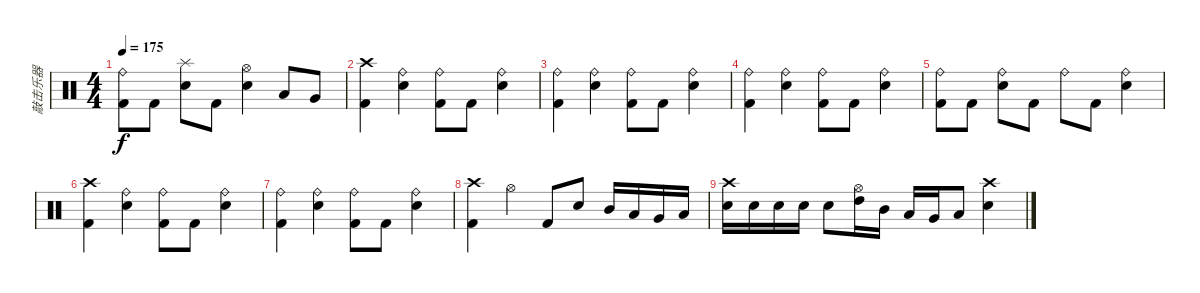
\track ("敲击乐器" "敲击乐器") {instrument percussion}
\staff {score}
\articulation defaults
\ts (4 4)
\tempo 175
\clef neutral
\ks c
("Ride (bell)" "Kick (hit) 2").8{dy f} "Kick (hit) 2".8 ("Splash (hit)" "Snare (hit) 2").8 "Kick (hit) 2".8 ("Hi-Hat (open)" "Snare (hit) 2").4 "Low Tom (hit)".8 "Very Low Tom (hit)".8 |
("Crash high (hit)" "Kick (hit) 2").4 ("Ride (bell)" "Snare (hit) 2").4 ("Ride (bell)" "Kick (hit) 2").8 "Kick (hit) 2".8 ("Ride (bell)" "Snare (hit) 2").4 |
("Ride (bell)" "Kick (hit) 2").4 ("Ride (bell)" "Snare (hit) 2").4 ("Ride (bell)" "Kick (hit) 2").8 "Kick (hit) 2".8 ("Ride (bell)" "Snare (hit) 2").4 |
("Ride (bell)" "Kick (hit) 2").4 ("Ride (bell)" "Snare (hit) 2").4 ("Ride (bell)" "Kick (hit) 2").8 "Kick (hit) 2".8 ("Ride (bell)" "Snare (hit) 2").4 |
("Ride (bell)" "Kick (hit) 2").8 "Kick (hit) 2".8 ("Ride (bell)" "Snare (hit) 2").8 "Kick (hit) 2".8 "Ride (bell)".8 "Kick (hit) 2".8 ("Ride (bell)" "Snare (hit) 2").4 |
("Crash high (hit)" "Kick (hit) 2").4 ("Ride (bell)" "Snare (hit) 2").4 ("Ride (bell)" "Kick (hit) 2").8 "Kick (hit) 2".8 ("Ride (bell)" "Snare (hit) 2").4 |
("Ride (bell)" "Kick (hit) 2").4 ("Ride (bell)" "Snare (hit) 2").4 ("Ride (bell)" "Kick (hit) 2").8 "Kick (hit) 2".8 ("Ride (bell)" "Snare (hit) 2").4 |
("Crash high (hit)" "Kick (hit) 2").4 "Hi-Hat (open)".4 "Kick (hit) 2".8 "Snare (hit) 2".8 "Mid Tom (hit)".16 "Low Tom (hit)".16 "Very Low Tom (hit)".16 "Low Floor Tom (hit)".16 |
("Crash high (hit)" "Snare (hit) 2").16 "Snare (hit) 2".16 "Snare (hit) 2".16 "Snare (hit) 2".16 "Snare (hit) 2".8 ("Hi-Hat (open)" "High Tom (hit)").16 "Mid Tom (hit)".16 "Low Tom (hit)".16 "Very Low Tom (hit)".16 "Low Floor Tom (hit)".8 ("Crash high (hit)" "Electric Snare (hit)").4
